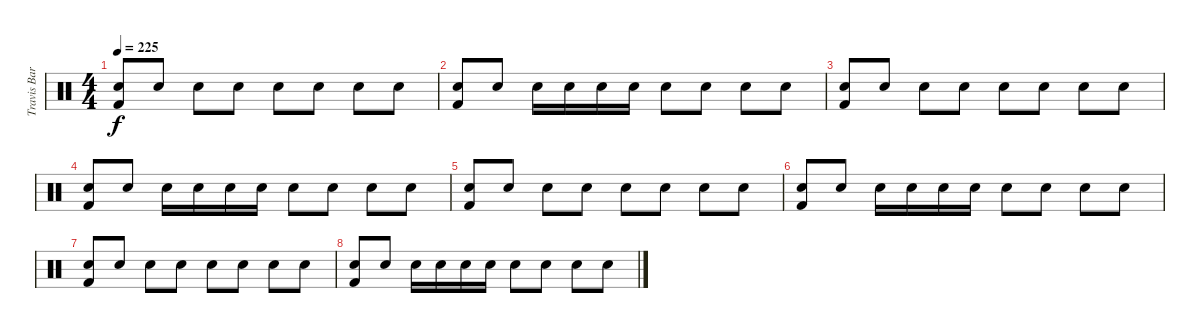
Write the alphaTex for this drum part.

\track ("Travis Barker (Drums)" "Travis Bar") {instrument percussion}
\staff {score}
\articulation defaults
\ts (4 4)
\tempo 225
\clef neutral
\ks c
("Snare (hit) 2" "Kick (hit) 2").8{dy f} "Snare (hit) 2".8 "Snare (hit) 2".8 "Electric Snare (hit)".8 "Snare (hit) 2".8 "Snare (hit) 2".8 "Electric Snare (hit)".8 "Snare (hit) 2".8 |
("Snare (hit) 2" "Kick (hit) 2").8 "Snare (hit) 2".8 "Snare (hit) 2".16 "Snare (hit) 2".16 "Snare (hit) 2".16 "Snare (hit) 2".16 "Electric Snare (hit)".8 "Electric Snare (hit)".8 "Snare (hit) 2".8 "Snare (hit) 2".8 |
("Snare (hit) 2" "Kick (hit) 2").8 "Snare (hit) 2".8 "Snare (hit) 2".8 "Electric Snare (hit)".8 "Snare (hit) 2".8 "Snare (hit) 2".8 "Electric Snare (hit)".8 "Snare (hit) 2".8 |
("Snare (hit) 2" "Kick (hit) 2").8 "Snare (hit) 2".8 "Snare (hit) 2".16 "Snare (hit) 2".16 "Snare (hit) 2".16 "Snare (hit) 2".16 "Electric Snare (hit)".8 "Electric Snare (hit)".8 "Snare (hit) 2".8 "Snare (hit) 2".8 |
("Snare (hit) 2" "Kick (hit) 2").8 "Snare (hit) 2".8 "Snare (hit) 2".8 "Electric Snare (hit)".8 "Snare (hit) 2".8 "Snare (hit) 2".8 "Electric Snare (hit)".8 "Snare (hit) 2".8 |
("Snare (hit) 2" "Kick (hit) 2").8 "Snare (hit) 2".8 "Snare (hit) 2".16 "Snare (hit) 2".16 "Snare (hit) 2".16 "Snare (hit) 2".16 "Electric Snare (hit)".8 "Electric Snare (hit)".8 "Snare (hit) 2".8 "Snare (hit) 2".8 |
("Snare (hit) 2" "Kick (hit) 2").8 "Snare (hit) 2".8 "Snare (hit) 2".8 "Electric Snare (hit)".8 "Snare (hit) 2".8 "Snare (hit) 2".8 "Electric Snare (hit)".8 "Snare (hit) 2".8 |
("Snare (hit) 2" "Kick (hit) 2").8 "Snare (hit) 2".8 "Snare (hit) 2".16 "Snare (hit) 2".16 "Snare (hit) 2".16 "Snare (hit) 2".16 "Electric Snare (hit)".8 "Electric Snare (hit)".8 "Snare (hit) 2".8 "Snare (hit) 2".8
